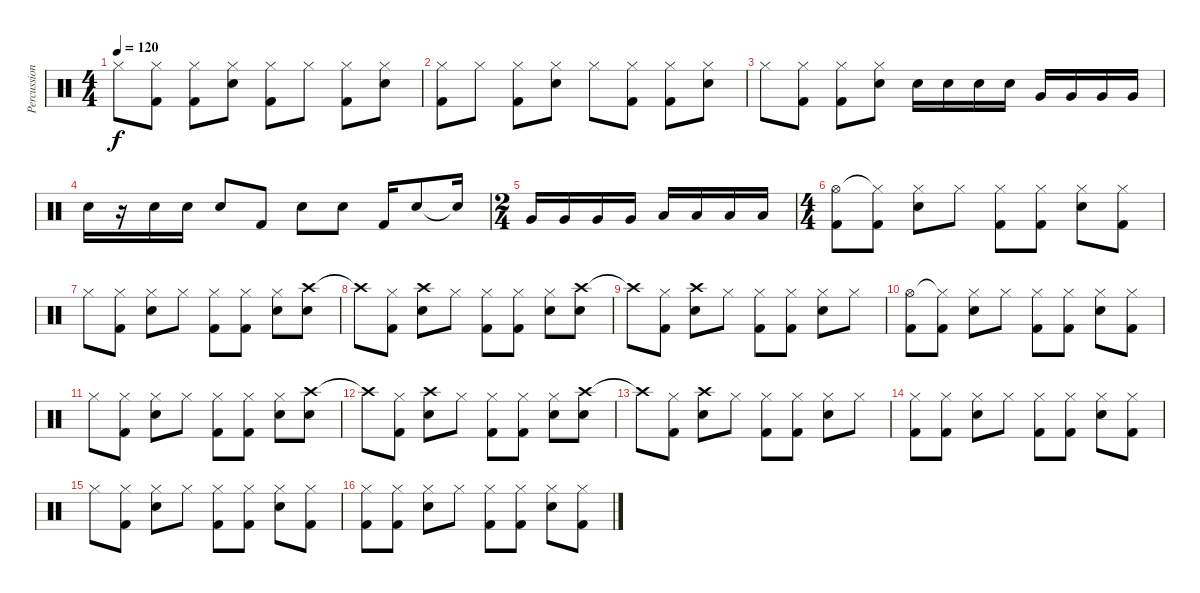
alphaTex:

\track ("Percussion" "Percussion") {instrument percussion}
\staff {score}
\articulation defaults
\ts (4 4)
\tempo 120
\clef neutral
\ks c "Hi-Hat (closed)".8{dy f}
("Hi-Hat (closed)" "Kick (hit) 2").8 ("Hi-Hat (closed)" "Kick (hit) 2").8 ("Hi-Hat (closed)" "Snare (hit) 2").8 ("Hi-Hat (closed)" "Kick (hit) 2").8 "Hi-Hat (closed)".8 ("Hi-Hat (closed)" "Kick (hit) 2").8 ("Hi-Hat (closed)" "Snare (hit) 2").8 |
("Hi-Hat (closed)" "Kick (hit) 2").8 "Hi-Hat (closed)".8 ("Hi-Hat (closed)" "Kick (hit) 2").8 ("Hi-Hat (closed)" "Snare (hit) 2").8 "Hi-Hat (closed)".8 ("Hi-Hat (closed)" "Kick (hit) 2").8 ("Hi-Hat (closed)" "Kick (hit) 2").8 ("Hi-Hat (closed)" "Snare (hit) 2").8 |
"Hi-Hat (closed)".8 ("Hi-Hat (closed)" "Kick (hit) 2").8 ("Hi-Hat (closed)" "Kick (hit) 2").8 ("Hi-Hat (closed)" "Snare (hit) 2").8 "Snare (hit) 2".16 "Snare (hit) 2".16 "Snare (hit) 2".16 "Snare (hit) 2".16 "Very Low Tom (hit)".16 "Very Low Tom (hit)".16 "Very Low Tom (hit)".16 "Very Low Tom (hit)".16 |
"Snare (hit) 2".16 r.16 "Snare (hit) 2".16 "Snare (hit) 2".16 "Snare (hit) 2".8 "Kick (hit) 2".8 "Snare (hit) 2".8 "Snare (hit) 2".8 "Kick (hit) 2".16 "Snare (hit) 2".8 "Snare (hit)"{t}.16 |
\ts (2 4)
"Very Low Tom (hit)".16 "Very Low Tom (hit)".16 "Very Low Tom (hit)".16 "Very Low Tom (hit)".16 "Low Floor Tom (hit)".16 "Low Floor Tom (hit)".16 "Low Floor Tom (hit)".16 "Low Floor Tom (hit)".16 |
\ts (4 4)
("Hi-Hat (open)" "Kick (hit) 2").8 ("Hi-Hat (closed)"{t} "Kick (hit) 2").8 ("Hi-Hat (closed)" "Snare (hit) 2").8 "Hi-Hat (closed)".8 ("Hi-Hat (closed)" "Kick (hit) 2").8 ("Hi-Hat (closed)" "Kick (hit) 2").8 ("Hi-Hat (closed)" "Snare (hit) 2").8 ("Hi-Hat (closed)" "Kick (hit) 2").8 |
"Hi-Hat (closed)".8 ("Hi-Hat (closed)" "Kick (hit) 2").8 ("Hi-Hat (closed)" "Snare (hit) 2").8 "Hi-Hat (closed)".8 ("Hi-Hat (closed)" "Kick (hit) 2").8 ("Hi-Hat (closed)" "Kick (hit) 2").8 ("Hi-Hat (closed)" "Snare (hit) 2").8 ("Crash high (hit)" "Snare (hit) 2").8 |
"Crash high (hit)"{t}.8 ("Hi-Hat (closed)" "Kick (hit) 2").8 ("Crash high (hit)" "Snare (hit) 2").8 "Hi-Hat (closed)".8 ("Hi-Hat (closed)" "Kick (hit) 2").8 ("Hi-Hat (closed)" "Kick (hit) 2").8 ("Hi-Hat (closed)" "Snare (hit) 2").8 ("Crash high (hit)" "Snare (hit) 2").8 |
"Crash high (hit)"{t}.8 ("Hi-Hat (closed)" "Kick (hit) 2").8 ("Crash high (hit)" "Snare (hit) 2").8 "Hi-Hat (closed)".8 ("Hi-Hat (closed)" "Kick (hit) 2").8 ("Hi-Hat (closed)" "Kick (hit) 2").8 ("Hi-Hat (closed)" "Snare (hit) 2").8 "Hi-Hat (closed)".8 |
("Hi-Hat (open)" "Kick (hit) 2").8 ("Hi-Hat (closed)"{t} "Kick (hit) 2").8 ("Hi-Hat (closed)" "Snare (hit) 2").8 "Hi-Hat (closed)".8 ("Hi-Hat (closed)" "Kick (hit) 2").8 ("Hi-Hat (closed)" "Kick (hit) 2").8 ("Hi-Hat (closed)" "Snare (hit) 2").8 ("Hi-Hat (closed)" "Kick (hit) 2").8 |
"Hi-Hat (closed)".8 ("Hi-Hat (closed)" "Kick (hit) 2").8 ("Hi-Hat (closed)" "Snare (hit) 2").8 "Hi-Hat (closed)".8 ("Hi-Hat (closed)" "Kick (hit) 2").8 ("Hi-Hat (closed)" "Kick (hit) 2").8 ("Hi-Hat (closed)" "Snare (hit) 2").8 ("Crash high (hit)" "Snare (hit) 2").8 |
"Crash high (hit)"{t}.8 ("Hi-Hat (closed)" "Kick (hit) 2").8 ("Crash high (hit)" "Snare (hit) 2").8 "Hi-Hat (closed)".8 ("Hi-Hat (closed)" "Kick (hit) 2").8 ("Hi-Hat (closed)" "Kick (hit) 2").8 ("Hi-Hat (closed)" "Snare (hit) 2").8 ("Crash high (hit)" "Snare (hit) 2").8 |
"Crash high (hit)"{t}.8 ("Hi-Hat (closed)" "Kick (hit) 2").8 ("Crash high (hit)" "Snare (hit) 2").8 "Hi-Hat (closed)".8 ("Hi-Hat (closed)" "Kick (hit) 2").8 ("Hi-Hat (closed)" "Kick (hit) 2").8 ("Hi-Hat (closed)" "Snare (hit) 2").8 "Hi-Hat (closed)".8 |
("Hi-Hat (closed)" "Kick (hit) 2").8 ("Hi-Hat (closed)" "Kick (hit) 2").8 ("Hi-Hat (closed)" "Snare (hit) 2").8 "Hi-Hat (closed)".8 ("Hi-Hat (closed)" "Kick (hit) 2").8 ("Hi-Hat (closed)" "Kick (hit) 2").8 ("Hi-Hat (closed)" "Snare (hit) 2").8 ("Hi-Hat (closed)" "Kick (hit) 2").8 |
"Hi-Hat (closed)".8 ("Hi-Hat (closed)" "Kick (hit) 2").8 ("Hi-Hat (closed)" "Snare (hit) 2").8 "Hi-Hat (closed)".8 ("Hi-Hat (closed)" "Kick (hit) 2").8 ("Hi-Hat (closed)" "Kick (hit) 2").8 ("Hi-Hat (closed)" "Snare (hit) 2").8 ("Hi-Hat (closed)" "Kick (hit) 2").8 |
("Hi-Hat (closed)" "Kick (hit) 2").8 ("Hi-Hat (closed)" "Kick (hit) 2").8 ("Hi-Hat (closed)" "Snare (hit) 2").8 "Hi-Hat (closed)".8 ("Hi-Hat (closed)" "Kick (hit) 2").8 ("Hi-Hat (closed)" "Kick (hit) 2").8 ("Hi-Hat (closed)" "Snare (hit) 2").8 ("Hi-Hat (closed)" "Kick (hit) 2").8
